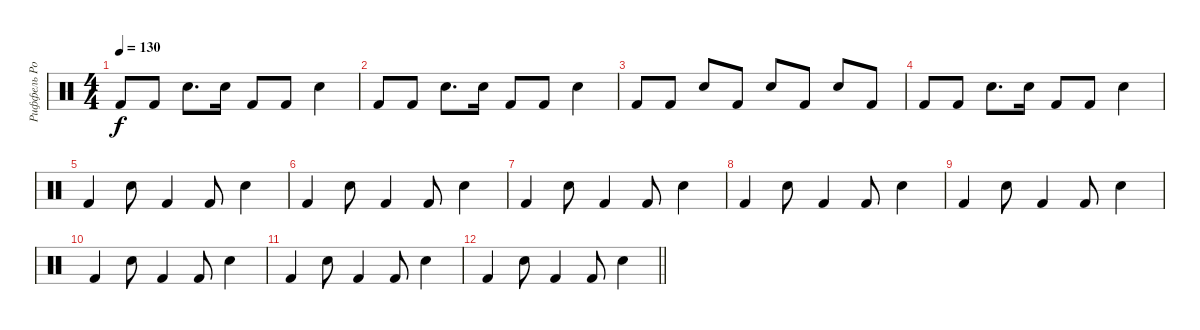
\track ("Риффель Роман (главные)" "Риффель Ро") {instrument percussion}
\staff {score}
\articulation defaults
\ts (4 4)
\tempo 130
\clef neutral
\ks c "Kick (hit) 2".8{dy f} "Kick (hit) 2".8 "Electric Snare (hit)".8{d} "Electric Snare (hit)".16 "Kick (hit) 2".8 "Kick (hit) 2".8 "Electric Snare (hit)".4
|
"Kick (hit) 2".8 "Kick (hit) 2".8 "Electric Snare (hit)".8{d} "Electric Snare (hit)".16 "Kick (hit) 2".8 "Kick (hit) 2".8 "Electric Snare (hit)".4 |
"Kick (hit) 2".8 "Kick (hit) 2".8 "Electric Snare (hit)".8 "Kick (hit) 2".8 "Electric Snare (hit)".8 "Kick (hit) 2".8 "Electric Snare (hit)".8 "Kick (hit) 2".8 |
"Kick (hit) 2".8 "Kick (hit) 2".8 "Electric Snare (hit)".8{d} "Electric Snare (hit)".16 "Kick (hit) 2".8 "Kick (hit) 2".8 "Electric Snare (hit)".4 |
"Kick (hit) 2".4 "Electric Snare (hit)".8 "Kick (hit) 2".4 "Kick (hit) 2".8 "Electric Snare (hit)".4 |
"Kick (hit) 2".4 "Electric Snare (hit)".8 "Kick (hit) 2".4 "Kick (hit) 2".8 "Electric Snare (hit)".4 |
"Kick (hit) 2".4 "Electric Snare (hit)".8 "Kick (hit) 2".4 "Kick (hit) 2".8 "Electric Snare (hit)".4 |
"Kick (hit) 2".4 "Electric Snare (hit)".8 "Kick (hit) 2".4 "Kick (hit) 2".8 "Electric Snare (hit)".4 |
"Kick (hit) 2".4 "Electric Snare (hit)".8 "Kick (hit) 2".4 "Kick (hit) 2".8 "Electric Snare (hit)".4 |
"Kick (hit) 2".4 "Electric Snare (hit)".8 "Kick (hit) 2".4 "Kick (hit) 2".8 "Electric Snare (hit)".4 |
"Kick (hit) 2".4 "Electric Snare (hit)".8 "Kick (hit) 2".4 "Kick (hit) 2".8 "Electric Snare (hit)".4 |
\barLineRight lightlight "Kick (hit) 2".4 "Electric Snare (hit)".8 "Kick (hit) 2".4 "Kick (hit) 2".8 "Electric Snare (hit)".4
